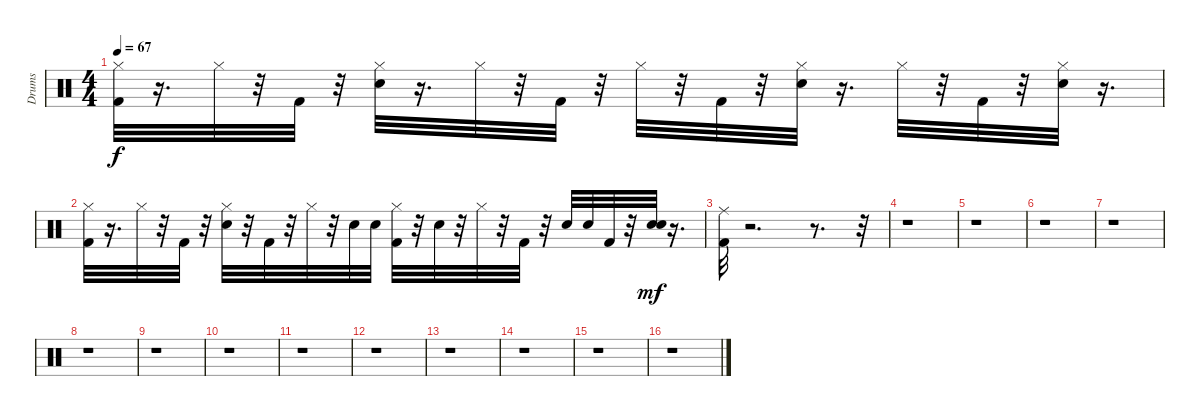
\track ("Drums" "Drums") {instrument percussion}
\staff {score}
\articulation defaults
\ts (4 4)
\tempo 67
\clef neutral
\ks c
("Kick (hit) 2" "Hi-Hat (closed)").32{dy f} r.16{d} "Hi-Hat (closed)".32 r.32 "Kick (hit) 2".32 r.32 ("Snare (hit) 2" "Hi-Hat (closed)").32 r.16{d} "Hi-Hat (closed)".32 r.32 "Kick (hit) 2".32 r.32 "Hi-Hat (closed)".32 r.32 "Kick (hit) 2".32 r.32 ("Snare (hit) 2" "Hi-Hat (closed)").32 r.16{d} "Hi-Hat (closed)".32 r.32 "Kick (hit) 2".32 r.32 ("Snare (hit) 2" "Hi-Hat (closed)").32 r.16{d} |
("Kick (hit) 2" "Hi-Hat (closed)").32 r.16{d} "Hi-Hat (closed)".32 r.32 "Kick (hit) 2".32 r.32 ("Snare (hit) 2" "Hi-Hat (closed)").32 r.32 "Kick (hit) 2".32 r.32 "Hi-Hat (closed)".32 r.32 "Snare (hit) 2".32 "Snare (hit) 2".32 ("Kick (hit) 2" "Hi-Hat (closed)").32 r.32 "Snare (hit) 2".32 r.32 "Hi-Hat (closed)".32 r.32 "Kick (hit) 2".32 r.32 "Snare (hit) 2".32 "Snare (hit) 2".32 "Kick (hit) 2".32 r.32 ("Electric Snare (hit)" "Snare (hit) 2").32{dy mf} r.16{d} |
("Ride (middle)" "Kick (hit) 2").32 r.2{d} r.8{d} r.32 |
r.1 |
r.1 |
r.1 |
r.1 |
r.1 |
r.1 |
r.1 |
r.1 |
r.1 |
r.1 |
r.1 |
r.1 |
r.1
